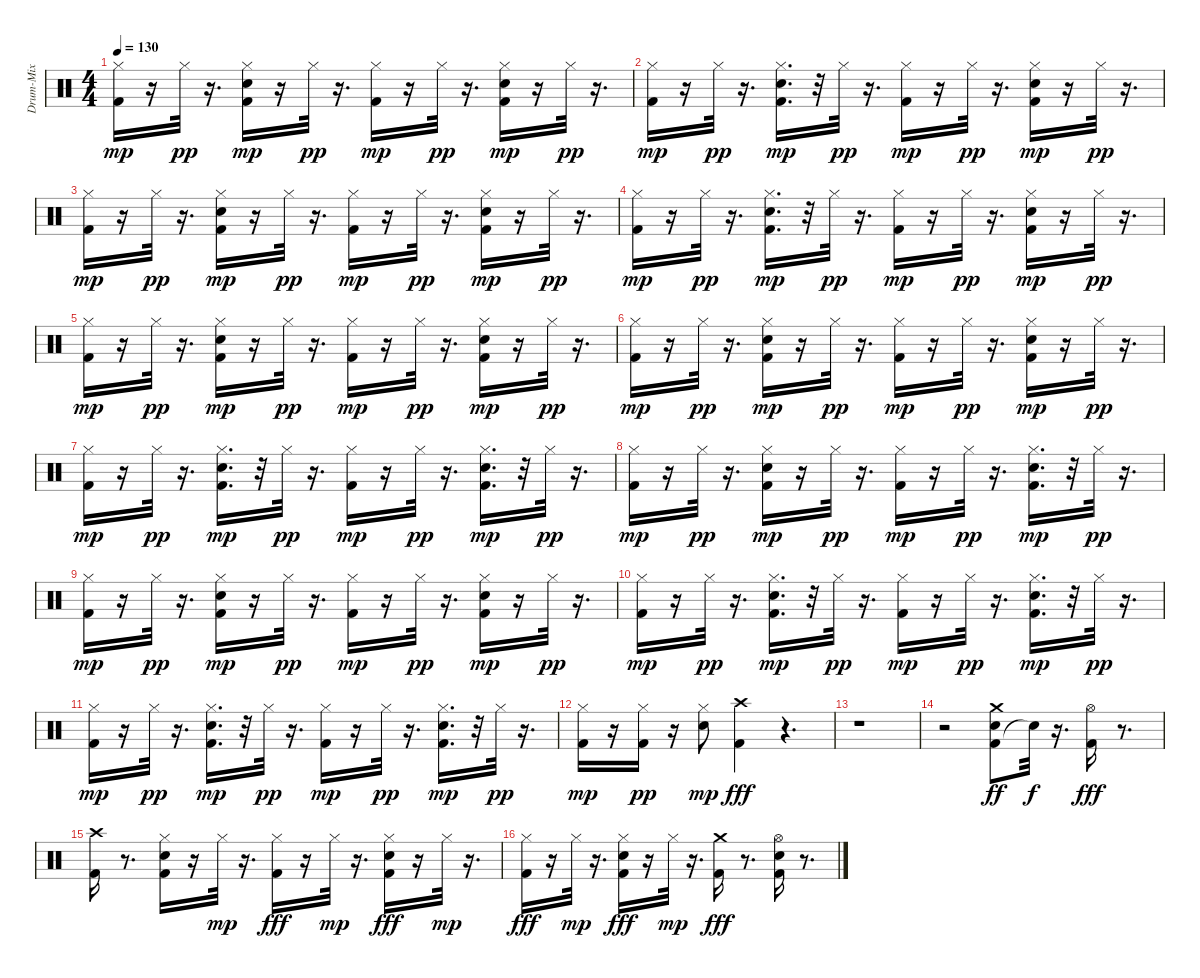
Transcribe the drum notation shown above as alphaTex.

\track ("Drum-Mix" "Drum-Mix") {instrument percussion}
\staff {score}
\articulation defaults
\ts (4 4)
\tempo 130
\clef neutral
\ks c
("Kick (hit) 2" "Hi-Hat (closed)").16{dy mp} r.16 "Hi-Hat (closed)".32{dy pp} r.16{d} ("Kick (hit) 2" "Snare (hit) 2" "Hi-Hat (closed)").16{dy mp} r.16 "Hi-Hat (closed)".32{dy pp} r.16{d} ("Kick (hit) 2" "Hi-Hat (closed)").16{dy mp} r.16 "Hi-Hat (closed)".32{dy pp} r.16{d} ("Kick (hit) 2" "Snare (hit) 2" "Hi-Hat (closed)").16{dy mp} r.16 "Hi-Hat (closed)".32{dy pp} r.16{d} |
("Kick (hit) 2" "Hi-Hat (closed)").16{dy mp} r.16 "Hi-Hat (closed)".32{dy pp} r.16{d} ("Kick (hit) 2" "Snare (hit) 2" "Hi-Hat (closed)").16{d dy mp} r.32 "Hi-Hat (closed)".32{dy pp} r.16{d} ("Kick (hit) 2" "Hi-Hat (closed)").16{dy mp} r.16 "Hi-Hat (closed)".32{dy pp} r.16{d} ("Kick (hit) 2" "Snare (hit) 2" "Hi-Hat (closed)").16{dy mp} r.16 "Hi-Hat (closed)".32{dy pp} r.16{d} |
("Kick (hit) 2" "Hi-Hat (closed)").16{dy mp} r.16 "Hi-Hat (closed)".32{dy pp} r.16{d} ("Kick (hit) 2" "Snare (hit) 2" "Hi-Hat (closed)").16{dy mp} r.16 "Hi-Hat (closed)".32{dy pp} r.16{d} ("Kick (hit) 2" "Hi-Hat (closed)").16{dy mp} r.16 "Hi-Hat (closed)".32{dy pp} r.16{d} ("Kick (hit) 2" "Snare (hit) 2" "Hi-Hat (closed)").16{dy mp} r.16 "Hi-Hat (closed)".32{dy pp} r.16{d} |
("Kick (hit) 2" "Hi-Hat (closed)").16{dy mp} r.16 "Hi-Hat (closed)".32{dy pp} r.16{d} ("Kick (hit) 2" "Snare (hit) 2" "Hi-Hat (closed)").16{d dy mp} r.32 "Hi-Hat (closed)".32{dy pp} r.16{d} ("Kick (hit) 2" "Hi-Hat (closed)").16{dy mp} r.16 "Hi-Hat (closed)".32{dy pp} r.16{d} ("Kick (hit) 2" "Snare (hit) 2" "Hi-Hat (closed)").16{dy mp} r.16 "Hi-Hat (closed)".32{dy pp} r.16{d} |
("Kick (hit) 2" "Hi-Hat (closed)").16{dy mp} r.16 "Hi-Hat (closed)".32{dy pp} r.16{d} ("Kick (hit) 2" "Snare (hit) 2" "Hi-Hat (closed)").16{dy mp} r.16 "Hi-Hat (closed)".32{dy pp} r.16{d} ("Kick (hit) 2" "Hi-Hat (closed)").16{dy mp} r.16 "Hi-Hat (closed)".32{dy pp} r.16{d} ("Kick (hit) 2" "Snare (hit) 2" "Hi-Hat (closed)").16{dy mp} r.16 "Hi-Hat (closed)".32{dy pp} r.16{d} |
("Kick (hit) 2" "Hi-Hat (closed)").16{dy mp} r.16 "Hi-Hat (closed)".32{dy pp} r.16{d} ("Kick (hit) 2" "Snare (hit) 2" "Hi-Hat (closed)").16{dy mp} r.16 "Hi-Hat (closed)".32{dy pp} r.16{d} ("Kick (hit) 2" "Hi-Hat (closed)").16{dy mp} r.16 "Hi-Hat (closed)".32{dy pp} r.16{d} ("Kick (hit) 2" "Snare (hit) 2" "Hi-Hat (closed)").16{dy mp} r.16 "Hi-Hat (closed)".32{dy pp} r.16{d} |
("Kick (hit) 2" "Hi-Hat (closed)").16{dy mp} r.16 "Hi-Hat (closed)".32{dy pp} r.16{d} ("Kick (hit) 2" "Snare (hit) 2" "Hi-Hat (closed)").16{d dy mp} r.32 "Hi-Hat (closed)".32{dy pp} r.16{d} ("Kick (hit) 2" "Hi-Hat (closed)").16{dy mp} r.16 "Hi-Hat (closed)".32{dy pp} r.16{d} ("Kick (hit) 2" "Snare (hit) 2" "Hi-Hat (closed)").16{d dy mp} r.32 "Hi-Hat (closed)".32{dy pp} r.16{d} |
("Kick (hit) 2" "Hi-Hat (closed)").16{dy mp} r.16 "Hi-Hat (closed)".32{dy pp} r.16{d} ("Kick (hit) 2" "Snare (hit) 2" "Hi-Hat (closed)").16{dy mp} r.16 "Hi-Hat (closed)".32{dy pp} r.16{d} ("Kick (hit) 2" "Hi-Hat (closed)").16{dy mp} r.16 "Hi-Hat (closed)".32{dy pp} r.16{d} ("Kick (hit) 2" "Snare (hit) 2" "Hi-Hat (closed)").16{d dy mp} r.32 "Hi-Hat (closed)".32{dy pp} r.16{d} |
("Kick (hit) 2" "Hi-Hat (closed)").16{dy mp} r.16 "Hi-Hat (closed)".32{dy pp} r.16{d} ("Kick (hit) 2" "Snare (hit) 2" "Hi-Hat (closed)").16{dy mp} r.16 "Hi-Hat (closed)".32{dy pp} r.16{d} ("Kick (hit) 2" "Hi-Hat (closed)").16{dy mp} r.16 "Hi-Hat (closed)".32{dy pp} r.16{d} ("Kick (hit) 2" "Snare (hit) 2" "Hi-Hat (closed)").16{dy mp} r.16 "Hi-Hat (closed)".32{dy pp} r.16{d} |
("Kick (hit) 2" "Hi-Hat (closed)").16{dy mp} r.16 "Hi-Hat (closed)".32{dy pp} r.16{d} ("Kick (hit) 2" "Snare (hit) 2" "Hi-Hat (closed)").16{d dy mp} r.32 "Hi-Hat (closed)".32{dy pp} r.16{d} ("Kick (hit) 2" "Hi-Hat (closed)").16{dy mp} r.16 "Hi-Hat (closed)".32{dy pp} r.16{d} ("Kick (hit) 2" "Snare (hit) 2" "Hi-Hat (closed)").16{d dy mp} r.32 "Hi-Hat (closed)".32{dy pp} r.16{d} |
("Kick (hit) 2" "Hi-Hat (closed)").16{dy mp} r.16 "Hi-Hat (closed)".32{dy pp} r.16{d} ("Kick (hit) 2" "Snare (hit) 2" "Hi-Hat (closed)").16{d dy mp} r.32 "Hi-Hat (closed)".32{dy pp} r.16{d} ("Kick (hit) 2" "Hi-Hat (closed)").16{dy mp} r.16 "Hi-Hat (closed)".32{dy pp} r.16{d} ("Kick (hit) 2" "Snare (hit) 2" "Hi-Hat (closed)").16{d dy mp} r.32 "Hi-Hat (closed)".32{dy pp} r.16{d} |
("Kick (hit) 2" "Hi-Hat (closed)").16{dy mp} r.16 ("Kick (hit) 2" "Hi-Hat (closed)").16{dy pp} r.16 ("Snare (hit) 2" "Hi-Hat (closed)").8{dy mp} ("Kick (hit) 2" "Crash high (hit)").4{dy fff} r.4{d} |
r.1 |
r.2 ("Kick (hit) 2" "Snare (hit) 2" "Crash medium (hit)").8{dy ff} "Snare (hit)"{t}.32{dy f} r.16{d} ("Kick (hit) 2" "Hi-Hat (open)").16{dy fff} r.8{d} |
("Kick (hit) 2" "Crash high (hit)").16 r.8{d} ("Kick (hit) 2" "Snare (hit) 2" "Hi-Hat (closed)").16 r.16 "Hi-Hat (closed)".32{dy mp} r.16{d} ("Kick (hit) 2" "Hi-Hat (closed)").16{dy fff} r.16 "Hi-Hat (closed)".32{dy mp} r.16{d} ("Kick (hit) 2" "Snare (hit) 2" "Hi-Hat (closed)").16{dy fff} r.16 "Hi-Hat (closed)".32{dy mp} r.16{d} |
("Kick (hit) 2" "Hi-Hat (closed)").16{dy fff} r.16 "Hi-Hat (closed)".32{dy mp} r.16{d} ("Kick (hit) 2" "Snare (hit) 2" "Hi-Hat (closed)").16{dy fff} r.16 "Hi-Hat (closed)".32{dy mp} r.16{d} ("Kick (hit) 2" "Crash medium (hit)").16{dy fff} r.8{d} ("Kick (hit) 2" "Snare (hit) 2" "Hi-Hat (open)").16 r.8{d}
